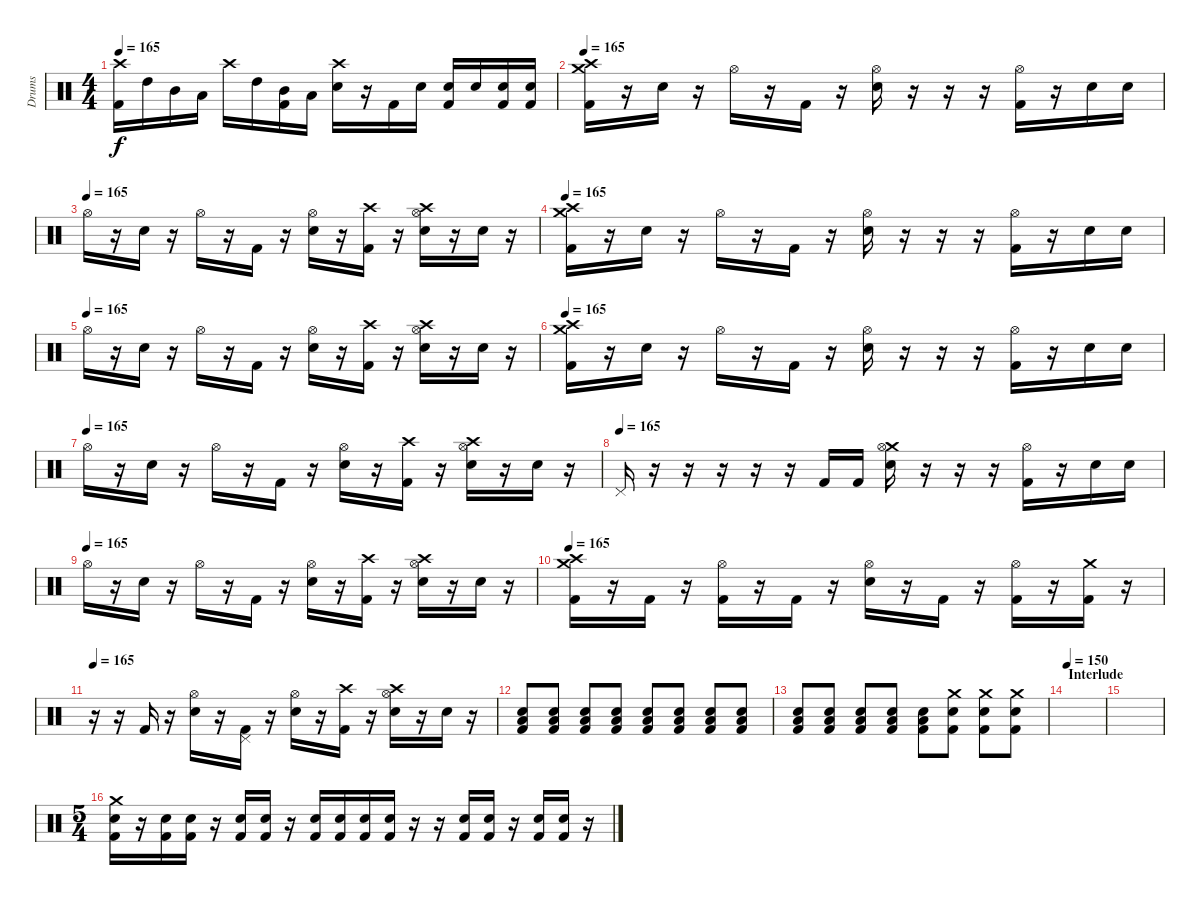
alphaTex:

\track ("Drums" "Drums") {instrument percussion}
\staff {score}
\articulation defaults
\ts (4 4)
\tempo 165
\clef neutral
\ks c
("Crash high (hit)" "Kick (hit) 2").16{dy f} "High Tom (hit)".16 "Mid Tom (hit)".16 "Low Tom (hit)".16 "Crash high (hit)".16 "High Tom (hit)".16 ("Mid Tom (hit)" "Kick (hit) 2").16 "Low Tom (hit)".16 ("Crash high (hit)" "Electric Snare (hit)").16 r.16 "Kick (hit) 2".16 "Electric Snare (hit)".16 ("Electric Snare (hit)" "Kick (hit) 2").16 "Electric Snare (hit)".16 ("Electric Snare (hit)" "Kick (hit) 2").16 ("Electric Snare (hit)" "Kick (hit) 2").16 |
\tempo 165
("Crash medium (hit)" "Crash high (hit)" "Kick (hit) 2").16 r.16 "Electric Snare (hit)".16 r.16 "Hi-Hat (open)".16 r.16 "Kick (hit) 2".16 r.16 ("Hi-Hat (open)" "Electric Snare (hit)").16 r.16 r.16 r.16 ("Hi-Hat (open)" "Kick (hit) 2").16 r.16 "Electric Snare (hit)".16 "Electric Snare (hit)".16 |
\tempo (165)
"Hi-Hat (open)".16 r.16 "Electric Snare (hit)".16 r.16 "Hi-Hat (open)".16 r.16 "Kick (hit) 2".16 r.16 ("Hi-Hat (open)" "Electric Snare (hit)").16 r.16 ("Crash high (hit)" "Kick (hit) 2").16 r.16 ("Crash high (hit)" "Hi-Hat (open)" "Electric Snare (hit)").16 r.16 "Electric Snare (hit)".16 r.16 |
\tempo 165
("Crash medium (hit)" "Crash high (hit)" "Kick (hit) 2").16 r.16 "Electric Snare (hit)".16 r.16 "Hi-Hat (open)".16 r.16 "Kick (hit) 2".16 r.16 ("Hi-Hat (open)" "Electric Snare (hit)").16 r.16 r.16 r.16 ("Hi-Hat (open)" "Kick (hit) 2").16 r.16 "Electric Snare (hit)".16 "Electric Snare (hit)".16 |
\tempo (165)
"Hi-Hat (open)".16 r.16 "Electric Snare (hit)".16 r.16 "Hi-Hat (open)".16 r.16 "Kick (hit) 2".16 r.16 ("Hi-Hat (open)" "Electric Snare (hit)").16 r.16 ("Crash high (hit)" "Kick (hit) 2").16 r.16 ("Crash high (hit)" "Hi-Hat (open)" "Electric Snare (hit)").16 r.16 "Electric Snare (hit)".16 r.16 |
\tempo 165
("Crash medium (hit)" "Crash high (hit)" "Kick (hit) 2").16 r.16 "Electric Snare (hit)".16 r.16 "Hi-Hat (open)".16 r.16 "Kick (hit) 2".16 r.16 ("Hi-Hat (open)" "Electric Snare (hit)").16 r.16 r.16 r.16 ("Hi-Hat (open)" "Kick (hit) 2").16 r.16 "Electric Snare (hit)".16 "Electric Snare (hit)".16 |
\tempo (165)
"Hi-Hat (open)".16 r.16 "Electric Snare (hit)".16 r.16 "Hi-Hat (open)".16 r.16 "Kick (hit) 2".16 r.16 ("Hi-Hat (open)" "Electric Snare (hit)").16 r.16 ("Crash high (hit)" "Kick (hit) 2").16 r.16 ("Crash high (hit)" "Hi-Hat (open)" "Electric Snare (hit)").16 r.16 "Electric Snare (hit)".16 r.16 |
\tempo (165)
"Pedal Hi-Hat (hit)".16 r.16 r.16 r.16 r.16 r.16 "Kick (hit) 2".16 "Kick (hit) 2".16 ("Crash medium (hit)" "Hi-Hat (open)" "Electric Snare (hit)").16 r.16 r.16 r.16 ("Hi-Hat (open)" "Kick (hit) 2").16 r.16 "Electric Snare (hit)".16 "Electric Snare (hit)".16 |
\tempo (165)
"Hi-Hat (open)".16 r.16 "Electric Snare (hit)".16 r.16 "Hi-Hat (open)".16 r.16 "Kick (hit) 2".16 r.16 ("Hi-Hat (open)" "Electric Snare (hit)").16 r.16 ("Crash high (hit)" "Kick (hit) 2").16 r.16 ("Crash high (hit)" "Hi-Hat (open)" "Electric Snare (hit)").16 r.16 "Electric Snare (hit)".16 r.16 |
\tempo 165
("Crash medium (hit)" "Crash high (hit)" "Kick (hit) 2").16 r.16 "Kick (hit) 2".16 r.16 ("Hi-Hat (open)" "Kick (hit) 2").16 r.16 "Kick (hit) 2".16 r.16 ("Hi-Hat (open)" "Electric Snare (hit)").16 r.16 "Kick (hit) 2".16 r.16 ("Hi-Hat (open)" "Kick (hit) 2").16 r.16 ("Crash medium (hit)" "Kick (hit) 2").16 r.16 |
\tempo 165
r.16 r.16 "Kick (hit) 2".16 r.16 ("Hi-Hat (open)" "Electric Snare (hit)").16 r.16 ("Pedal Hi-Hat (hit)" "Kick (hit) 2").16 r.16 ("Hi-Hat (open)" "Electric Snare (hit)").16 r.16 ("Crash high (hit)" "Kick (hit) 2").16 r.16 ("Crash high (hit)" "Hi-Hat (open)" "Electric Snare (hit)").16 r.16 "Electric Snare (hit)".16 r.16{volume 0} |
("Low Floor Tom (hit)" "Electric Snare (hit)" "Kick (hit) 2").8{volume 15} ("Low Floor Tom (hit)" "Electric Snare (hit)" "Kick (hit) 2").8 ("Low Floor Tom (hit)" "Electric Snare (hit)" "Kick (hit) 2").8 ("Low Floor Tom (hit)" "Electric Snare (hit)" "Kick (hit) 2").8 ("Low Floor Tom (hit)" "Electric Snare (hit)" "Kick (hit) 2").8 ("Low Floor Tom (hit)" "Electric Snare (hit)" "Kick (hit) 2").8 ("Low Floor Tom (hit)" "Electric Snare (hit)" "Kick (hit) 2").8 ("Low Floor Tom (hit)" "Electric Snare (hit)" "Kick (hit) 2").8 |
("Low Floor Tom (hit)" "Electric Snare (hit)" "Kick (hit) 2").8 ("Low Floor Tom (hit)" "Electric Snare (hit)" "Kick (hit) 2").8 ("Low Floor Tom (hit)" "Electric Snare (hit)" "Kick (hit) 2").8 ("Low Floor Tom (hit)" "Electric Snare (hit)" "Kick (hit) 2").8 ("Low Floor Tom (hit)" "Electric Snare (hit)" "Kick (hit) 2").8 ("Crash medium (hit)" "Electric Snare (hit)" "Kick (hit) 2").8 ("Crash medium (hit)" "Electric Snare (hit)" "Kick (hit) 2").8 ("Crash medium (hit)" "Electric Snare (hit)" "Kick (hit) 2").8 |
\section ("" "Interlude")
\tempo 150
|
|
\ts (5 4)
("Crash medium (hit)" "Electric Snare (hit)" "Kick (hit) 2").16 r.16 ("Electric Snare (hit)" "Kick (hit) 2").16 ("Electric Snare (hit)" "Kick (hit) 2").16 r.16 ("Electric Snare (hit)" "Kick (hit) 2").16 ("Electric Snare (hit)" "Kick (hit) 2").16 r.16 ("Electric Snare (hit)" "Kick (hit) 2").16 ("Electric Snare (hit)" "Kick (hit) 2").16 ("Electric Snare (hit)" "Kick (hit) 2").16 ("Electric Snare (hit)" "Kick (hit) 2").16 r.16 r.16 ("Electric Snare (hit)" "Kick (hit) 2").16 ("Electric Snare (hit)" "Kick (hit) 2").16 r.16 ("Electric Snare (hit)" "Kick (hit) 2").16 ("Electric Snare (hit)" "Kick (hit) 2").16 r.16
